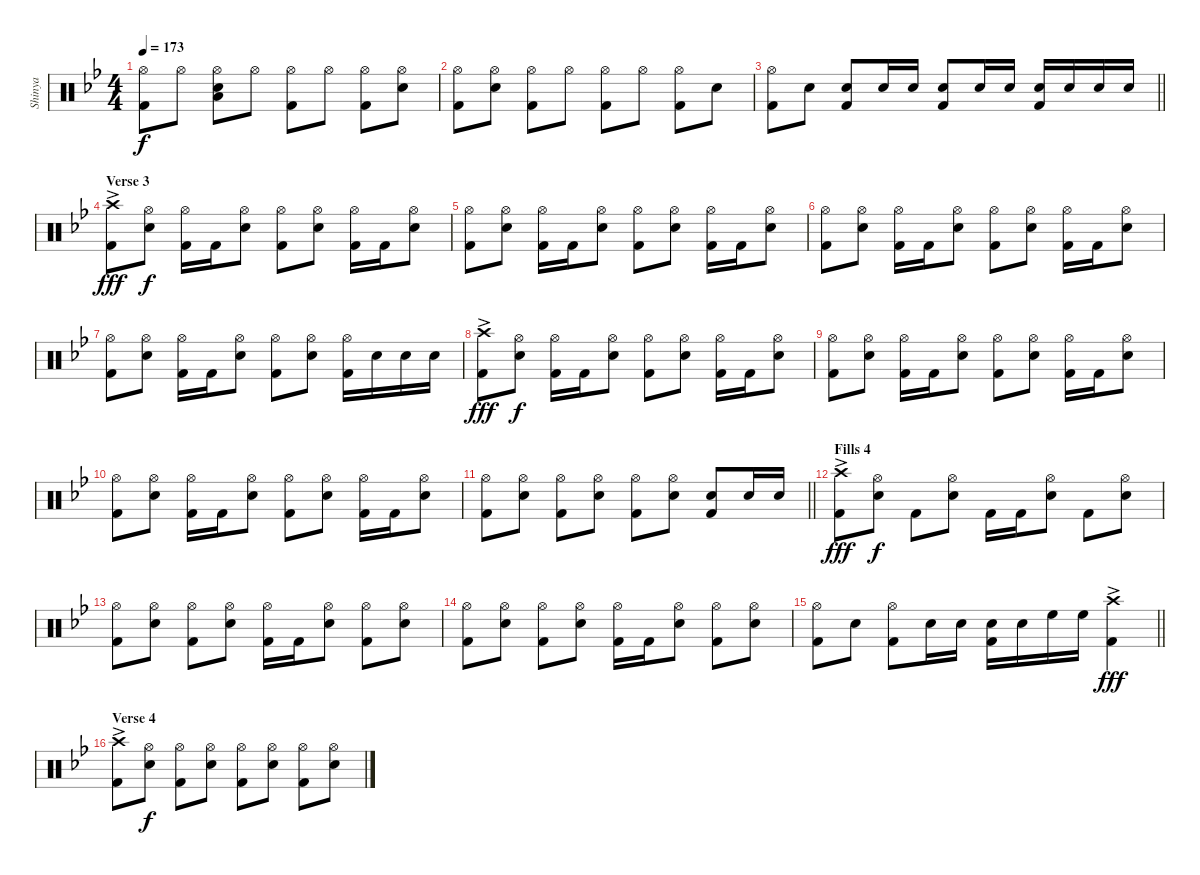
\track ("Shinya" "Shinya") {instrument percussion}
\staff {score}
\articulation defaults
\ts (4 4)
\tempo 173
\clef neutral
\ks bb
("Hi-Hat (open)" "Kick (hit) 2").8{dy f} "Hi-Hat (open)".8 ("Hi-Hat (open)" "Snare (hit) 2" "Low Floor Tom (hit)").8 "Hi-Hat (open)".8 ("Hi-Hat (open)" "Kick (hit) 2").8 "Hi-Hat (open)".8 ("Hi-Hat (open)" "Kick (hit) 2").8 ("Hi-Hat (open)" "Snare (hit) 2").8 |
("Hi-Hat (open)" "Kick (hit) 2").8 ("Hi-Hat (open)" "Snare (hit) 2").8 ("Hi-Hat (open)" "Kick (hit) 2").8 "Hi-Hat (open)".8 ("Hi-Hat (open)" "Kick (hit) 2").8 "Hi-Hat (open)".8 ("Hi-Hat (open)" "Kick (hit) 2").8 "Snare (hit) 2".8 |
\barLineRight lightlight
("Hi-Hat (open)" "Kick (hit) 2").8 "Snare (hit) 2".8 ("Snare (hit) 2" "Kick (hit) 2").8 "Snare (hit) 2".16 "Snare (hit) 2".16 ("Snare (hit) 2" "Kick (hit) 2").8 "Snare (hit) 2".16 "Snare (hit) 2".16 ("Snare (hit) 2" "Kick (hit) 2").16 "Snare (hit) 2".16 "Snare (hit) 2".16 "Snare (hit) 2".16 |
\section ("" "Verse 3")
("Crash high (hit)"{ac} "Kick (hit) 2").8{dy fff} ("Hi-Hat (open)" "Snare (hit) 2").8{dy f} ("Hi-Hat (open)" "Kick (hit) 2").16 "Kick (hit) 2".16 ("Hi-Hat (open)" "Snare (hit) 2").8 ("Hi-Hat (open)" "Kick (hit) 2").8 ("Hi-Hat (open)" "Snare (hit) 2").8 ("Hi-Hat (open)" "Kick (hit) 2").16 "Kick (hit) 2".16 ("Hi-Hat (open)" "Snare (hit) 2").8 |
("Hi-Hat (open)" "Kick (hit) 2").8 ("Hi-Hat (open)" "Snare (hit) 2").8 ("Hi-Hat (open)" "Kick (hit) 2").16 "Kick (hit) 2".16 ("Hi-Hat (open)" "Snare (hit) 2").8 ("Hi-Hat (open)" "Kick (hit) 2").8 ("Hi-Hat (open)" "Snare (hit) 2").8 ("Hi-Hat (open)" "Kick (hit) 2").16 "Kick (hit) 2".16 ("Hi-Hat (open)" "Snare (hit) 2").8 |
("Hi-Hat (open)" "Kick (hit) 2").8 ("Hi-Hat (open)" "Snare (hit) 2").8 ("Hi-Hat (open)" "Kick (hit) 2").16 "Kick (hit) 2".16 ("Hi-Hat (open)" "Snare (hit) 2").8 ("Hi-Hat (open)" "Kick (hit) 2").8 ("Hi-Hat (open)" "Snare (hit) 2").8 ("Hi-Hat (open)" "Kick (hit) 2").16 "Kick (hit) 2".16 ("Hi-Hat (open)" "Snare (hit) 2").8 |
("Hi-Hat (open)" "Kick (hit) 2").8 ("Hi-Hat (open)" "Snare (hit) 2").8 ("Hi-Hat (open)" "Kick (hit) 2").16 "Kick (hit) 2".16 ("Hi-Hat (open)" "Snare (hit) 2").8 ("Hi-Hat (open)" "Kick (hit) 2").8 ("Hi-Hat (open)" "Snare (hit) 2").8 ("Hi-Hat (open)" "Kick (hit) 2").16 "Snare (hit) 2".16 "Snare (hit) 2".16 "Snare (hit) 2".16 |
("Crash high (hit)"{ac} "Kick (hit) 2").8{dy fff} ("Hi-Hat (open)" "Snare (hit) 2").8{dy f} ("Hi-Hat (open)" "Kick (hit) 2").16 "Kick (hit) 2".16 ("Hi-Hat (open)" "Snare (hit) 2").8 ("Hi-Hat (open)" "Kick (hit) 2").8 ("Hi-Hat (open)" "Snare (hit) 2").8 ("Hi-Hat (open)" "Kick (hit) 2").16 "Kick (hit) 2".16 ("Hi-Hat (open)" "Snare (hit) 2").8 |
("Hi-Hat (open)" "Kick (hit) 2").8 ("Hi-Hat (open)" "Snare (hit) 2").8 ("Hi-Hat (open)" "Kick (hit) 2").16 "Kick (hit) 2".16 ("Hi-Hat (open)" "Snare (hit) 2").8 ("Hi-Hat (open)" "Kick (hit) 2").8 ("Hi-Hat (open)" "Snare (hit) 2").8 ("Hi-Hat (open)" "Kick (hit) 2").16 "Kick (hit) 2".16 ("Hi-Hat (open)" "Snare (hit) 2").8 |
("Hi-Hat (open)" "Kick (hit) 2").8 ("Hi-Hat (open)" "Snare (hit) 2").8 ("Hi-Hat (open)" "Kick (hit) 2").16 "Kick (hit) 2".16 ("Hi-Hat (open)" "Snare (hit) 2").8 ("Hi-Hat (open)" "Kick (hit) 2").8 ("Hi-Hat (open)" "Snare (hit) 2").8 ("Hi-Hat (open)" "Kick (hit) 2").16 "Kick (hit) 2".16 ("Hi-Hat (open)" "Snare (hit) 2").8 |
\barLineRight lightlight
("Hi-Hat (open)" "Kick (hit) 2").8 ("Hi-Hat (open)" "Snare (hit) 2").8 ("Hi-Hat (open)" "Kick (hit) 2").8 ("Hi-Hat (open)" "Snare (hit) 2").8 ("Hi-Hat (open)" "Kick (hit) 2").8 ("Hi-Hat (open)" "Snare (hit) 2").8 ("Snare (hit) 2" "Kick (hit) 2").8 "Snare (hit) 2".16 "Snare (hit) 2".16 |
\section ("" "Fills 4")
("Crash high (hit)"{ac} "Kick (hit) 2").8{dy fff} ("Hi-Hat (open)" "Snare (hit) 2").8{dy f} "Kick (hit) 2".8 ("Hi-Hat (open)" "Snare (hit) 2").8 "Kick (hit) 2".16 "Kick (hit) 2".16 ("Hi-Hat (open)" "Snare (hit) 2").8 "Kick (hit) 2".8 ("Hi-Hat (open)" "Snare (hit) 2").8 |
("Hi-Hat (open)" "Kick (hit) 2").8 ("Hi-Hat (open)" "Snare (hit) 2").8 ("Hi-Hat (open)" "Kick (hit) 2").8 ("Hi-Hat (open)" "Snare (hit) 2").8 ("Hi-Hat (open)" "Kick (hit) 2").16 "Kick (hit) 2".16 ("Hi-Hat (open)" "Snare (hit) 2").8 ("Hi-Hat (open)" "Kick (hit) 2").8 ("Hi-Hat (open)" "Snare (hit) 2").8 |
("Hi-Hat (open)" "Kick (hit) 2").8 ("Hi-Hat (open)" "Snare (hit) 2").8 ("Hi-Hat (open)" "Kick (hit) 2").8 ("Hi-Hat (open)" "Snare (hit) 2").8 ("Hi-Hat (open)" "Kick (hit) 2").16 "Kick (hit) 2".16 ("Hi-Hat (open)" "Snare (hit) 2").8 ("Hi-Hat (open)" "Kick (hit) 2").8 ("Hi-Hat (open)" "Snare (hit) 2").8 |
\barLineRight lightlight
("Hi-Hat (open)" "Kick (hit) 2").8 "Snare (hit) 2".8 ("Hi-Hat (open)" "Kick (hit) 2").8 "Snare (hit) 2".16 "Snare (hit) 2".16 ("Snare (hit) 2" "Kick (hit) 2").16 "Snare (hit) 2".16 "High Floor Tom (hit)".16 "High Floor Tom (hit)".16 ("Crash high (hit)"{ac} "Kick (hit) 2").4{dy fff} |
\section ("" "Verse 4")
("Crash high (hit)"{ac} "Kick (hit) 2").8 ("Hi-Hat (open)" "Snare (hit) 2").8{dy f} ("Hi-Hat (open)" "Kick (hit) 2").8 ("Hi-Hat (open)" "Snare (hit) 2").8 ("Hi-Hat (open)" "Kick (hit) 2").8 ("Hi-Hat (open)" "Snare (hit) 2").8 ("Hi-Hat (open)" "Kick (hit) 2").8 ("Hi-Hat (open)" "Snare (hit) 2").8
